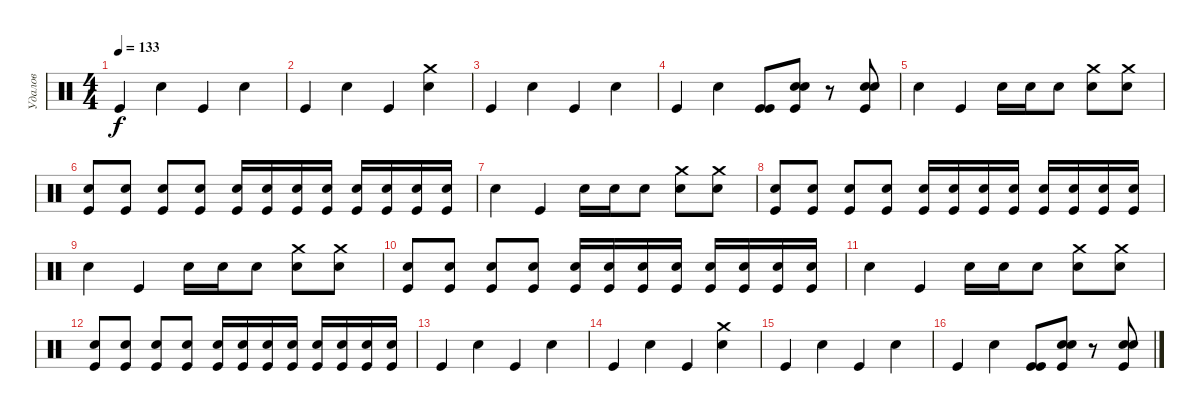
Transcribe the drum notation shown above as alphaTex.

\track ("Удалов" "Удалов") {instrument percussion}
\staff {score}
\articulation defaults
\ts (4 4)
\tempo 133
\clef neutral
\ks c "Kick (hit)".4{dy f} "Electric Snare (hit)".4 "Kick (hit)".4 "Electric Snare (hit)".4
|
"Kick (hit)".4 "Electric Snare (hit)".4 "Kick (hit)".4 ("Crash medium (hit)" "Electric Snare (hit)").4 |
"Kick (hit)".4 "Electric Snare (hit)".4 "Kick (hit)".4 "Electric Snare (hit)".4 |
"Kick (hit)".4 "Electric Snare (hit)".4 ("Kick (hit)" "Kick (hit)").8 ("Electric Snare (hit)" "Electric Snare (hit)" "Kick (hit)").8 r.8 ("Electric Snare (hit)" "Electric Snare (hit)" "Kick (hit)").8 |
"Electric Snare (hit)".4 "Kick (hit)".4 "Electric Snare (hit)".16 "Electric Snare (hit)".16 "Electric Snare (hit)".8 ("Crash medium (hit)" "Electric Snare (hit)").8 ("Crash medium (hit)" "Electric Snare (hit)").8 |
("Electric Snare (hit)" "Kick (hit)").8 ("Electric Snare (hit)" "Kick (hit)").8 ("Electric Snare (hit)" "Kick (hit)").8 ("Electric Snare (hit)" "Kick (hit)").8 ("Electric Snare (hit)" "Kick (hit)").16 ("Electric Snare (hit)" "Kick (hit)").16 ("Electric Snare (hit)" "Kick (hit)").16 ("Electric Snare (hit)" "Kick (hit)").16 ("Electric Snare (hit)" "Kick (hit)").16 ("Electric Snare (hit)" "Kick (hit)").16 ("Electric Snare (hit)" "Kick (hit)").16 ("Electric Snare (hit)" "Kick (hit)").16 |
"Electric Snare (hit)".4 "Kick (hit)".4 "Electric Snare (hit)".16 "Electric Snare (hit)".16 "Electric Snare (hit)".8 ("Crash medium (hit)" "Electric Snare (hit)").8 ("Crash medium (hit)" "Electric Snare (hit)").8 |
("Electric Snare (hit)" "Kick (hit)").8 ("Electric Snare (hit)" "Kick (hit)").8 ("Electric Snare (hit)" "Kick (hit)").8 ("Electric Snare (hit)" "Kick (hit)").8 ("Electric Snare (hit)" "Kick (hit)").16 ("Electric Snare (hit)" "Kick (hit)").16 ("Electric Snare (hit)" "Kick (hit)").16 ("Electric Snare (hit)" "Kick (hit)").16 ("Electric Snare (hit)" "Kick (hit)").16 ("Electric Snare (hit)" "Kick (hit)").16 ("Electric Snare (hit)" "Kick (hit)").16 ("Electric Snare (hit)" "Kick (hit)").16 |
"Electric Snare (hit)".4 "Kick (hit)".4 "Electric Snare (hit)".16 "Electric Snare (hit)".16 "Electric Snare (hit)".8 ("Crash medium (hit)" "Electric Snare (hit)").8 ("Crash medium (hit)" "Electric Snare (hit)").8 |
("Electric Snare (hit)" "Kick (hit)").8 ("Electric Snare (hit)" "Kick (hit)").8 ("Electric Snare (hit)" "Kick (hit)").8 ("Electric Snare (hit)" "Kick (hit)").8 ("Electric Snare (hit)" "Kick (hit)").16 ("Electric Snare (hit)" "Kick (hit)").16 ("Electric Snare (hit)" "Kick (hit)").16 ("Electric Snare (hit)" "Kick (hit)").16 ("Electric Snare (hit)" "Kick (hit)").16 ("Electric Snare (hit)" "Kick (hit)").16 ("Electric Snare (hit)" "Kick (hit)").16 ("Electric Snare (hit)" "Kick (hit)").16 |
"Electric Snare (hit)".4 "Kick (hit)".4 "Electric Snare (hit)".16 "Electric Snare (hit)".16 "Electric Snare (hit)".8 ("Crash medium (hit)" "Electric Snare (hit)").8 ("Crash medium (hit)" "Electric Snare (hit)").8 |
("Electric Snare (hit)" "Kick (hit)").8 ("Electric Snare (hit)" "Kick (hit)").8 ("Electric Snare (hit)" "Kick (hit)").8 ("Electric Snare (hit)" "Kick (hit)").8 ("Electric Snare (hit)" "Kick (hit)").16 ("Electric Snare (hit)" "Kick (hit)").16 ("Electric Snare (hit)" "Kick (hit)").16 ("Electric Snare (hit)" "Kick (hit)").16 ("Electric Snare (hit)" "Kick (hit)").16 ("Electric Snare (hit)" "Kick (hit)").16 ("Electric Snare (hit)" "Kick (hit)").16 ("Electric Snare (hit)" "Kick (hit)").16 |
"Kick (hit)".4 "Electric Snare (hit)".4 "Kick (hit)".4 "Electric Snare (hit)".4 |
"Kick (hit)".4 "Electric Snare (hit)".4 "Kick (hit)".4 ("Crash medium (hit)" "Electric Snare (hit)").4 |
"Kick (hit)".4 "Electric Snare (hit)".4 "Kick (hit)".4 "Electric Snare (hit)".4 |
"Kick (hit)".4 "Electric Snare (hit)".4 ("Kick (hit)" "Kick (hit)").8 ("Electric Snare (hit)" "Electric Snare (hit)" "Kick (hit)").8 r.8 ("Electric Snare (hit)" "Electric Snare (hit)" "Kick (hit)").8
